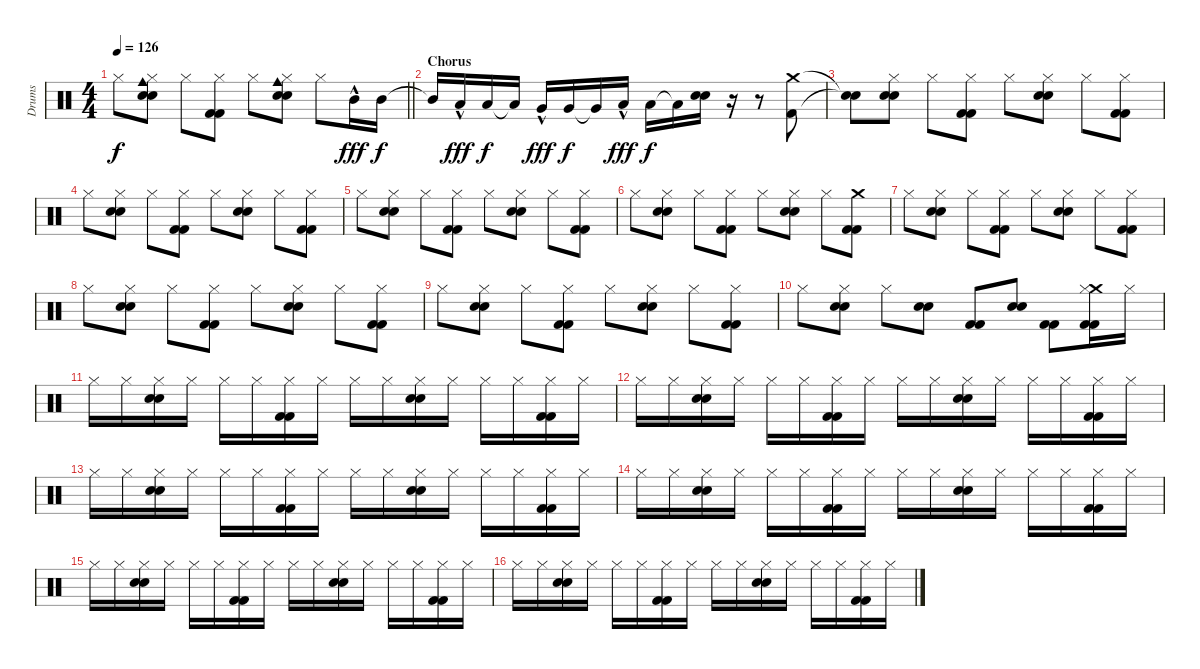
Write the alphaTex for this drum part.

\track ("Drums" "Drums") {instrument percussion}
\staff {score}
\articulation defaults
\ts (4 4)
\tempo 126
\clef neutral
\barLineRight lightlight
\ks c "Hi-Hat (closed)".8{dy f}
("Cowbell medium (hit)" "Electric Snare (hit)" "Hi-Hat (closed)" "Electric Snare (hit)").8 "Hi-Hat (closed)".8 ("Kick (hit) 2" "Hi-Hat (closed)" "Kick (hit) 2").8 "Hi-Hat (closed)".8 ("Cowbell medium (hit)" "Electric Snare (hit)" "Hi-Hat (closed)" "Electric Snare (hit)").8 "Hi-Hat (closed)".8 "Mid Tom (hit)"{hac}.16{dy fff} "Mid Tom (hit)".16{dy f} |
\section ("" "Chorus")
"Mid Tom (hit)"{t}.16 "Low Tom (hit)"{hac}.16{dy fff} "Low Tom (hit)".16{dy f} "Low Tom (hit)"{t}.16 "Very Low Tom (hit)"{hac}.16{dy fff} "Very Low Tom (hit)".16{dy f} "Very Low Tom (hit)"{t}.16 "Low Floor Tom (hit)"{hac}.16{dy fff} "Low Floor Tom (hit)".16{dy f} "Low Floor Tom (hit)"{t}.16 ("Hand Clap (hit)" "Hand Clap (hit)").16 r.16 r.8 ("Crash medium (hit)" "Kick (hit) 2").8 |
("Snare (hit)"{t} "Snare (hit)"{t}).8 ("Electric Snare (hit)" "Hi-Hat (closed)" "Electric Snare (hit)").8 "Hi-Hat (closed)".8 ("Kick (hit) 2" "Hi-Hat (closed)" "Kick (hit) 2").8 "Hi-Hat (closed)".8 ("Electric Snare (hit)" "Hi-Hat (closed)" "Electric Snare (hit)").8 "Hi-Hat (closed)".8 ("Kick (hit) 2" "Hi-Hat (closed)" "Kick (hit) 2").8 |
"Hi-Hat (closed)".8 ("Electric Snare (hit)" "Hi-Hat (closed)" "Electric Snare (hit)").8 "Hi-Hat (closed)".8 ("Kick (hit) 2" "Hi-Hat (closed)" "Kick (hit) 2").8 "Hi-Hat (closed)".8 ("Electric Snare (hit)" "Hi-Hat (closed)" "Electric Snare (hit)").8 "Hi-Hat (closed)".8 ("Kick (hit) 2" "Hi-Hat (closed)" "Kick (hit) 2").8 |
"Hi-Hat (closed)".8 ("Electric Snare (hit)" "Hi-Hat (closed)" "Electric Snare (hit)").8 "Hi-Hat (closed)".8 ("Kick (hit) 2" "Hi-Hat (closed)" "Kick (hit) 2").8 "Hi-Hat (closed)".8 ("Electric Snare (hit)" "Hi-Hat (closed)" "Electric Snare (hit)").8 "Hi-Hat (closed)".8 ("Kick (hit) 2" "Hi-Hat (closed)" "Kick (hit) 2").8 |
"Hi-Hat (closed)".8 ("Electric Snare (hit)" "Hi-Hat (closed)" "Electric Snare (hit)").8 "Hi-Hat (closed)".8 ("Kick (hit) 2" "Hi-Hat (closed)" "Kick (hit) 2").8 "Hi-Hat (closed)".8 ("Electric Snare (hit)" "Hi-Hat (closed)" "Electric Snare (hit)").8 "Hi-Hat (closed)".8 ("Crash medium (hit)" "Kick (hit) 2" "Kick (hit) 2").8 |
"Hi-Hat (closed)".8 ("Electric Snare (hit)" "Hi-Hat (closed)" "Electric Snare (hit)").8 "Hi-Hat (closed)".8 ("Kick (hit) 2" "Hi-Hat (closed)" "Kick (hit) 2").8 "Hi-Hat (closed)".8 ("Electric Snare (hit)" "Hi-Hat (closed)" "Electric Snare (hit)").8 "Hi-Hat (closed)".8 ("Kick (hit) 2" "Hi-Hat (closed)" "Kick (hit) 2").8 |
"Hi-Hat (closed)".8 ("Electric Snare (hit)" "Hi-Hat (closed)" "Electric Snare (hit)").8 "Hi-Hat (closed)".8 ("Kick (hit) 2" "Hi-Hat (closed)" "Kick (hit) 2").8 "Hi-Hat (closed)".8 ("Electric Snare (hit)" "Hi-Hat (closed)" "Electric Snare (hit)").8 "Hi-Hat (closed)".8 ("Kick (hit) 2" "Hi-Hat (closed)" "Kick (hit) 2").8 |
"Hi-Hat (closed)".8 ("Electric Snare (hit)" "Hi-Hat (closed)" "Electric Snare (hit)").8 "Hi-Hat (closed)".8 ("Kick (hit) 2" "Hi-Hat (closed)" "Kick (hit) 2").8 "Hi-Hat (closed)".8 ("Electric Snare (hit)" "Hi-Hat (closed)" "Electric Snare (hit)").8 "Hi-Hat (closed)".8 ("Kick (hit) 2" "Hi-Hat (closed)" "Kick (hit) 2").8 |
"Hi-Hat (closed)".8 ("Electric Snare (hit)" "Hi-Hat (closed)" "Electric Snare (hit)").8 "Hi-Hat (closed)".8 ("Electric Snare (hit)" "Electric Snare (hit)").8 ("Kick (hit) 2" "Kick (hit) 2").8 ("Electric Snare (hit)" "Electric Snare (hit)").8 ("Kick (hit) 2" "Kick (hit) 2").8 ("Crash medium (hit)" "Kick (hit) 2" "Hi-Hat (closed)" "Kick (hit) 2").16 "Hi-Hat (closed)".16 |
"Hi-Hat (closed)".16 "Hi-Hat (closed)".16 ("Electric Snare (hit)" "Hi-Hat (closed)" "Electric Snare (hit)").16 "Hi-Hat (closed)".16 "Hi-Hat (closed)".16 "Hi-Hat (closed)".16 ("Kick (hit) 2" "Hi-Hat (closed)" "Kick (hit) 2").16 "Hi-Hat (closed)".16 "Hi-Hat (closed)".16 "Hi-Hat (closed)".16 ("Electric Snare (hit)" "Hi-Hat (closed)" "Electric Snare (hit)").16 "Hi-Hat (closed)".16 "Hi-Hat (closed)".16 "Hi-Hat (closed)".16 ("Kick (hit) 2" "Hi-Hat (closed)" "Kick (hit) 2").16 "Hi-Hat (closed)".16 |
"Hi-Hat (closed)".16 "Hi-Hat (closed)".16 ("Electric Snare (hit)" "Hi-Hat (closed)" "Electric Snare (hit)").16 "Hi-Hat (closed)".16 "Hi-Hat (closed)".16 "Hi-Hat (closed)".16 ("Kick (hit) 2" "Hi-Hat (closed)" "Kick (hit) 2").16 "Hi-Hat (closed)".16 "Hi-Hat (closed)".16 "Hi-Hat (closed)".16 ("Electric Snare (hit)" "Hi-Hat (closed)" "Electric Snare (hit)").16 "Hi-Hat (closed)".16 "Hi-Hat (closed)".16 "Hi-Hat (closed)".16 ("Kick (hit) 2" "Hi-Hat (closed)" "Kick (hit) 2").16 "Hi-Hat (closed)".16 |
"Hi-Hat (closed)".16 "Hi-Hat (closed)".16 ("Electric Snare (hit)" "Hi-Hat (closed)" "Electric Snare (hit)").16 "Hi-Hat (closed)".16 "Hi-Hat (closed)".16 "Hi-Hat (closed)".16 ("Kick (hit) 2" "Hi-Hat (closed)" "Kick (hit) 2").16 "Hi-Hat (closed)".16 "Hi-Hat (closed)".16 "Hi-Hat (closed)".16 ("Electric Snare (hit)" "Hi-Hat (closed)" "Electric Snare (hit)").16 "Hi-Hat (closed)".16 "Hi-Hat (closed)".16 "Hi-Hat (closed)".16 ("Kick (hit) 2" "Hi-Hat (closed)" "Kick (hit) 2").16 "Hi-Hat (closed)".16 |
"Hi-Hat (closed)".16 "Hi-Hat (closed)".16 ("Electric Snare (hit)" "Hi-Hat (closed)" "Electric Snare (hit)").16 "Hi-Hat (closed)".16 "Hi-Hat (closed)".16 "Hi-Hat (closed)".16 ("Kick (hit) 2" "Hi-Hat (closed)" "Kick (hit) 2").16 "Hi-Hat (closed)".16 "Hi-Hat (closed)".16 "Hi-Hat (closed)".16 ("Electric Snare (hit)" "Hi-Hat (closed)" "Electric Snare (hit)").16 "Hi-Hat (closed)".16 "Hi-Hat (closed)".16 "Hi-Hat (closed)".16 ("Kick (hit) 2" "Hi-Hat (closed)" "Kick (hit) 2").16 "Hi-Hat (closed)".16 |
"Hi-Hat (closed)".16 "Hi-Hat (closed)".16 ("Electric Snare (hit)" "Hi-Hat (closed)" "Electric Snare (hit)").16 "Hi-Hat (closed)".16 "Hi-Hat (closed)".16 "Hi-Hat (closed)".16 ("Kick (hit) 2" "Hi-Hat (closed)" "Kick (hit) 2").16 "Hi-Hat (closed)".16 "Hi-Hat (closed)".16 "Hi-Hat (closed)".16 ("Electric Snare (hit)" "Hi-Hat (closed)" "Electric Snare (hit)").16 "Hi-Hat (closed)".16 "Hi-Hat (closed)".16 "Hi-Hat (closed)".16 ("Kick (hit) 2" "Hi-Hat (closed)" "Kick (hit) 2").16 "Hi-Hat (closed)".16 |
"Hi-Hat (closed)".16 "Hi-Hat (closed)".16 ("Electric Snare (hit)" "Hi-Hat (closed)" "Electric Snare (hit)").16 "Hi-Hat (closed)".16 "Hi-Hat (closed)".16 "Hi-Hat (closed)".16 ("Kick (hit) 2" "Hi-Hat (closed)" "Kick (hit) 2").16 "Hi-Hat (closed)".16 "Hi-Hat (closed)".16 "Hi-Hat (closed)".16 ("Electric Snare (hit)" "Hi-Hat (closed)" "Electric Snare (hit)").16 "Hi-Hat (closed)".16 "Hi-Hat (closed)".16 "Hi-Hat (closed)".16 ("Kick (hit) 2" "Hi-Hat (closed)" "Kick (hit) 2").16 "Hi-Hat (closed)".16
